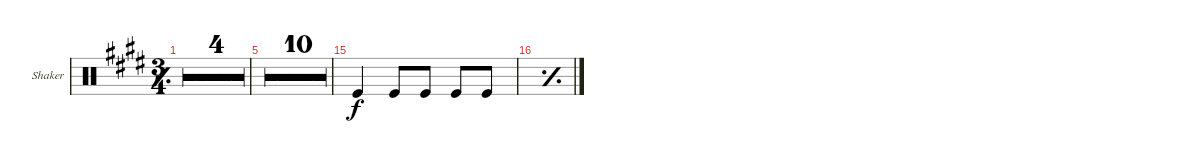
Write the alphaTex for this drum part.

\defaultSystemsLayout 4
\bracketExtendMode groupsimilarinstruments
\firstSystemTrackNameOrientation horizontal
\otherSystemsTrackNameOrientation horizontal
\track ("Shaker" "Shaker") {multiBarRest instrument percussion}
\staff {score}
\articulation defaults
\ts (3 4)
\tempo
150.035
\accidentals auto
\clef neutral
\ottava regular
\simile simple
\ks e
|
|
|
\simile none
r.2{d} |
\tempo
165.176 r.2{d} |
r.2{d} |
r.2{d} |
r.2{d} |
r.2{d} |
r.2{d} |
r.2{d} |
r.2{d} |
r.2{d} |
r.2{d} |
"Kick (hit)".4 "Kick (hit)".8 "Kick (hit)".8 "Kick (hit)".8 "Kick (hit)".8 |
\simile simple
